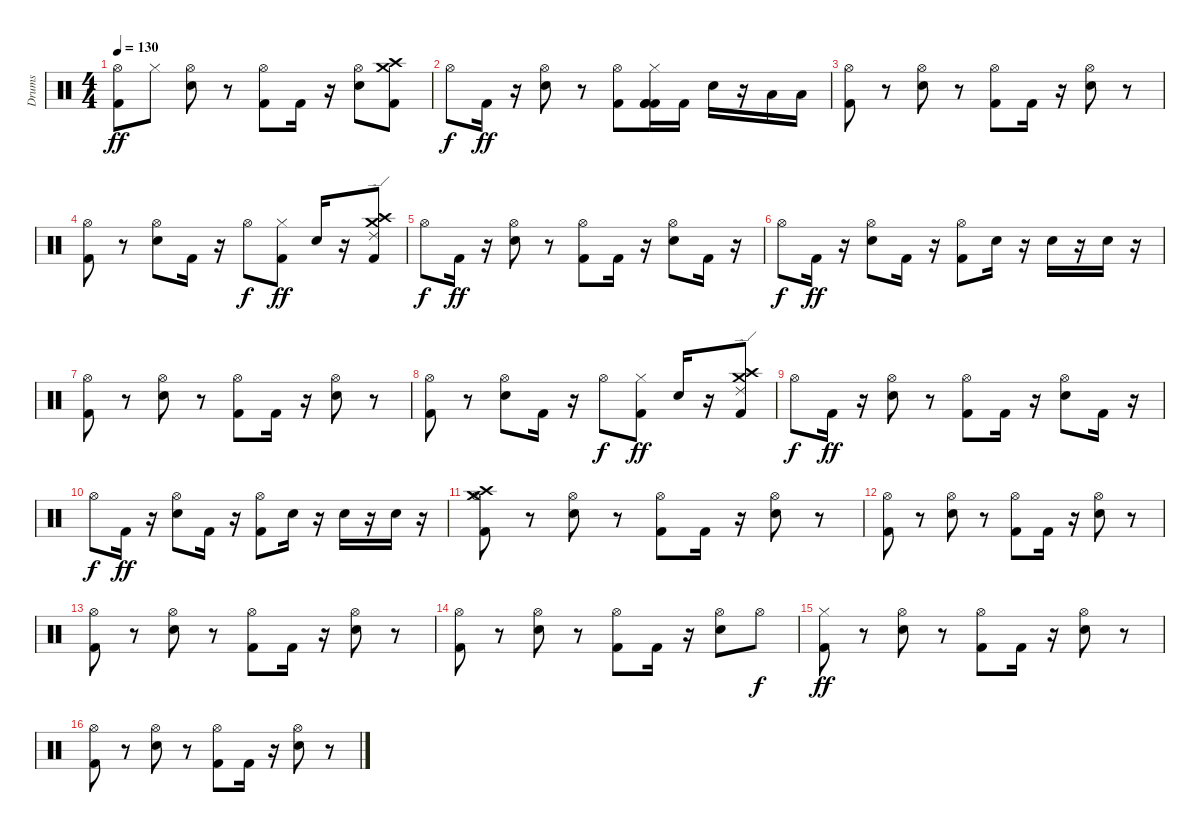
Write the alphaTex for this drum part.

\track ("Drums" "Drums") {instrument percussion}
\staff {score}
\articulation defaults
\ts (4 4)
\tempo 130
\clef neutral
\ks c
("Kick (hit) 2" "Hi-Hat (open)").8{dy ff} "Hi-Hat (closed)".8 ("Snare (hit) 2" "Hi-Hat (open)").8 r.8 ("Kick (hit) 2" "Hi-Hat (open)").8 "Kick (hit) 2".16 r.16 ("Snare (hit) 2" "Hi-Hat (open)").8 ("Kick (hit) 2" "Crash high (hit)" "Crash medium (hit)").8 |
"Hi-Hat (open)".8{dy f} "Kick (hit) 2".16{dy ff} r.16 ("Snare (hit) 2" "Hi-Hat (open)").8 r.8 ("Kick (hit) 2" "Hi-Hat (open)").8 ("Kick (hit) 2" "Kick (hit) 2" "Kick (hit) 2" "Hi-Hat (closed)").16 "Kick (hit) 2".16 "Snare (hit) 2".16 r.16 "Low Floor Tom (hit)".16 "Low Floor Tom (hit)".16 |
("Kick (hit) 2" "Hi-Hat (open)").8 r.8 ("Snare (hit) 2" "Hi-Hat (open)").8 r.8 ("Kick (hit) 2" "Hi-Hat (open)").8 "Kick (hit) 2".16 r.16 ("Snare (hit) 2" "Hi-Hat (open)").8 r.8 |
("Kick (hit) 2" "Hi-Hat (open)").8 r.8 ("Snare (hit) 2" "Hi-Hat (open)").8 "Kick (hit) 2".16 r.16 "Hi-Hat (open)".8{dy f} ("Kick (hit) 2" "Hi-Hat (closed)").8{dy ff} "Snare (hit) 2".16 r.16 ("Kick (hit) 2" "Crash high (hit)" "Crash medium (hit)" "Ride (edge) 2").8 |
"Hi-Hat (open)".8{dy f} "Kick (hit) 2".16{dy ff} r.16 ("Snare (hit) 2" "Hi-Hat (open)").8 r.8 ("Kick (hit) 2" "Hi-Hat (open)").8 "Kick (hit) 2".16 r.16 ("Snare (hit) 2" "Hi-Hat (open)").8 "Kick (hit) 2".16 r.16 |
"Hi-Hat (open)".8{dy f} "Kick (hit) 2".16{dy ff} r.16 ("Snare (hit) 2" "Hi-Hat (open)").8 "Kick (hit) 2".16 r.16 ("Kick (hit) 2" "Hi-Hat (open)").8 "Snare (hit) 2".16 r.16 "Snare (hit) 2".16 r.16 "Snare (hit) 2".16 r.16 |
("Kick (hit) 2" "Hi-Hat (open)").8 r.8 ("Snare (hit) 2" "Hi-Hat (open)").8 r.8 ("Kick (hit) 2" "Hi-Hat (open)").8 "Kick (hit) 2".16 r.16 ("Snare (hit) 2" "Hi-Hat (open)").8 r.8 |
("Kick (hit) 2" "Hi-Hat (open)").8 r.8 ("Snare (hit) 2" "Hi-Hat (open)").8 "Kick (hit) 2".16 r.16 "Hi-Hat (open)".8{dy f} ("Kick (hit) 2" "Hi-Hat (closed)").8{dy ff} "Snare (hit) 2".16 r.16 ("Kick (hit) 2" "Crash high (hit)" "Crash medium (hit)" "Ride (edge) 2").8 |
"Hi-Hat (open)".8{dy f} "Kick (hit) 2".16{dy ff} r.16 ("Snare (hit) 2" "Hi-Hat (open)").8 r.8 ("Kick (hit) 2" "Hi-Hat (open)").8 "Kick (hit) 2".16 r.16 ("Snare (hit) 2" "Hi-Hat (open)").8 "Kick (hit) 2".16 r.16 |
"Hi-Hat (open)".8{dy f} "Kick (hit) 2".16{dy ff} r.16 ("Snare (hit) 2" "Hi-Hat (open)").8 "Kick (hit) 2".16 r.16 ("Kick (hit) 2" "Hi-Hat (open)").8 "Snare (hit) 2".16 r.16 "Snare (hit) 2".16 r.16 "Snare (hit) 2".16 r.16 |
("Kick (hit) 2" "Hi-Hat (open)" "Crash high (hit)" "Crash medium (hit)").8 r.8 ("Snare (hit) 2" "Hi-Hat (open)").8 r.8 ("Kick (hit) 2" "Hi-Hat (open)").8 "Kick (hit) 2".16 r.16 ("Snare (hit) 2" "Hi-Hat (open)").8 r.8 |
("Kick (hit) 2" "Hi-Hat (open)").8 r.8 ("Snare (hit) 2" "Hi-Hat (open)").8 r.8 ("Kick (hit) 2" "Hi-Hat (open)").8 "Kick (hit) 2".16 r.16 ("Snare (hit) 2" "Hi-Hat (open)").8 r.8 |
("Kick (hit) 2" "Hi-Hat (open)").8 r.8 ("Snare (hit) 2" "Hi-Hat (open)").8 r.8 ("Kick (hit) 2" "Hi-Hat (open)").8 "Kick (hit) 2".16 r.16 ("Snare (hit) 2" "Hi-Hat (open)").8 r.8 |
("Kick (hit) 2" "Hi-Hat (open)").8 r.8 ("Snare (hit) 2" "Hi-Hat (open)").8 r.8 ("Kick (hit) 2" "Hi-Hat (open)").8 "Kick (hit) 2".16 r.16 ("Snare (hit) 2" "Hi-Hat (open)").8 "Hi-Hat (open)".8{dy f} |
("Kick (hit) 2" "Hi-Hat (closed)").8{dy ff} r.8 ("Snare (hit) 2" "Hi-Hat (open)").8 r.8 ("Kick (hit) 2" "Hi-Hat (open)").8 "Kick (hit) 2".16 r.16 ("Snare (hit) 2" "Hi-Hat (open)").8 r.8 |
("Kick (hit) 2" "Hi-Hat (open)").8 r.8 ("Snare (hit) 2" "Hi-Hat (open)").8 r.8 ("Kick (hit) 2" "Hi-Hat (open)").8 "Kick (hit) 2".16 r.16 ("Snare (hit) 2" "Hi-Hat (open)").8 r.8
